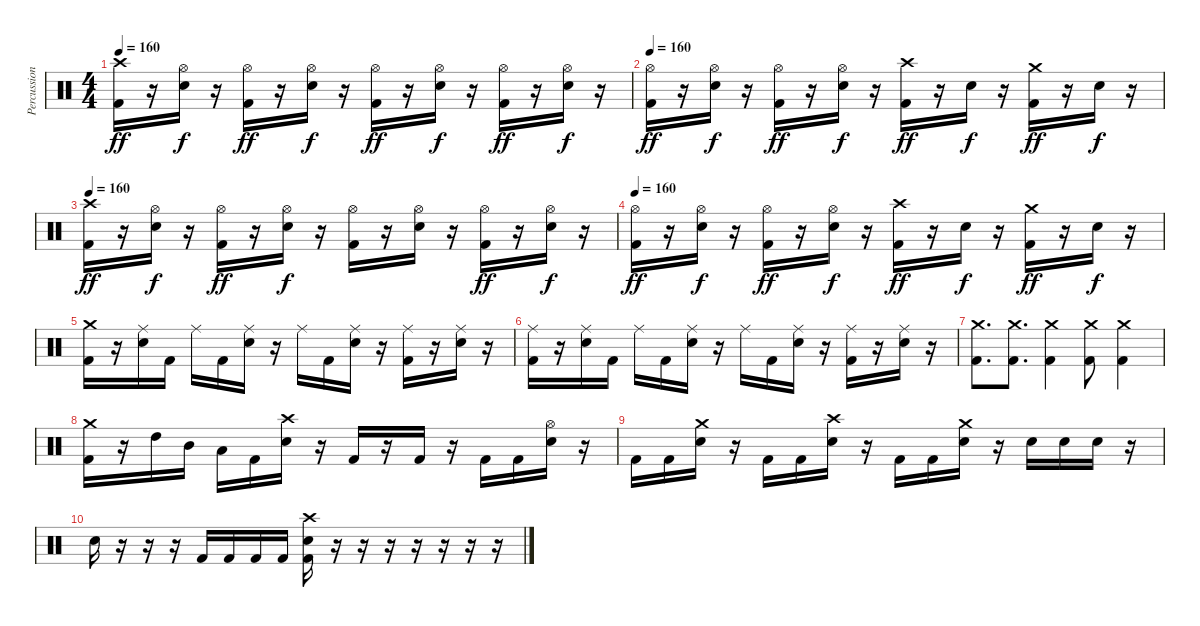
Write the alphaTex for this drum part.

\track ("Percussion" "Percussion") {instrument percussion}
\staff {score}
\articulation defaults
\ts (4 4)
\tempo 160
\clef neutral
\ks c
("Crash high (hit)" "Kick (hit) 2").16{dy ff} r.16 ("Hi-Hat (open)" "Snare (hit) 2").16{dy f} r.16 ("Hi-Hat (open)" "Kick (hit) 2").16{dy ff} r.16 ("Hi-Hat (open)" "Snare (hit) 2").16{dy f} r.16 ("Hi-Hat (open)" "Kick (hit) 2").16{dy ff} r.16 ("Hi-Hat (open)" "Snare (hit) 2").16{dy f} r.16 ("Hi-Hat (open)" "Kick (hit) 2").16{dy ff} r.16 ("Hi-Hat (open)" "Snare (hit) 2").16{dy f} r.16 |
\tempo 160
("Hi-Hat (open)" "Kick (hit) 2").16{dy ff} r.16 ("Hi-Hat (open)" "Snare (hit) 2").16{dy f} r.16 ("Hi-Hat (open)" "Kick (hit) 2").16{dy ff} r.16 ("Hi-Hat (open)" "Snare (hit) 2").16{dy f} r.16 ("Crash high (hit)" "Kick (hit) 2").16{dy ff} r.16 "Snare (hit) 2".16{dy f} r.16 ("Crash medium (hit)" "Kick (hit) 2").16{dy ff} r.16 "Snare (hit) 2".16{dy f} r.16 |
\tempo 160
("Crash high (hit)" "Kick (hit) 2").16{dy ff} r.16 ("Hi-Hat (open)" "Snare (hit) 2").16{dy f} r.16 ("Hi-Hat (open)" "Kick (hit) 2").16{dy ff} r.16 ("Hi-Hat (open)" "Snare (hit) 2").16{dy f} r.16 ("Hi-Hat (open)" "Kick (hit) 2").16 r.16 ("Hi-Hat (open)" "Snare (hit) 2").16 r.16 ("Hi-Hat (open)" "Kick (hit) 2").16{dy ff} r.16 ("Hi-Hat (open)" "Snare (hit) 2").16{dy f} r.16 |
\tempo 160
("Hi-Hat (open)" "Kick (hit) 2").16{dy ff} r.16 ("Hi-Hat (open)" "Snare (hit) 2").16{dy f} r.16 ("Hi-Hat (open)" "Kick (hit) 2").16{dy ff} r.16 ("Hi-Hat (open)" "Snare (hit) 2").16{dy f} r.16 ("Crash high (hit)" "Kick (hit) 2").16{dy ff} r.16 "Snare (hit) 2".16{dy f} r.16 ("Crash medium (hit)" "Kick (hit) 2").16{dy ff} r.16 "Snare (hit) 2".16{dy f} r.16 |
("Crash medium (hit)" "Kick (hit) 2").16 r.16 ("Ride (middle)" "Snare (hit) 2").16 "Kick (hit) 2".16 "Ride (middle)".16 "Kick (hit) 2".16 ("Ride (middle)" "Snare (hit) 2").16 r.16 "Ride (middle)".16 "Kick (hit) 2".16 ("Ride (middle)" "Snare (hit) 2").16 r.16 ("Ride (middle)" "Kick (hit) 2").16 r.16 ("Ride (middle)" "Snare (hit) 2").16 r.16 |
("Ride (middle)" "Kick (hit) 2").16 r.16 ("Ride (middle)" "Snare (hit) 2").16 "Kick (hit) 2".16 "Ride (middle)".16 "Kick (hit) 2".16 ("Ride (middle)" "Snare (hit) 2").16 r.16 "Ride (middle)".16 "Kick (hit) 2".16 ("Ride (middle)" "Snare (hit) 2").16 r.16 ("Ride (middle)" "Kick (hit) 2").16 r.16 ("Ride (middle)" "Snare (hit) 2").16 r.16 |
("Crash medium (hit)" "Kick (hit) 2").8{d} ("Crash medium (hit)" "Kick (hit) 2").8{d} ("Crash medium (hit)" "Kick (hit) 2").4 ("Crash medium (hit)" "Kick (hit) 2").8 ("Crash medium (hit)" "Kick (hit) 2").4 |
("Crash medium (hit)" "Kick (hit) 2").16 r.16 "High Tom (hit)".16 "Mid Tom (hit)".16 "Low Tom (hit)".16 "Kick (hit) 2".16 ("Crash high (hit)" "Snare (hit) 2").16 r.16 "Kick (hit) 2".16 r.16 "Kick (hit) 2".16 r.16 "Kick (hit) 2".16 "Kick (hit) 2".16 ("Hi-Hat (open)" "Snare (hit) 2").16 r.16 |
"Kick (hit) 2".16 "Kick (hit) 2".16 ("Crash medium (hit)" "Snare (hit) 2").16 r.16 "Kick (hit) 2".16 "Kick (hit) 2".16 ("Crash high (hit)" "Snare (hit) 2").16 r.16 "Kick (hit) 2".16 "Kick (hit) 2".16 ("Crash medium (hit)" "Snare (hit) 2").16 r.16 "Snare (hit) 2".16 "Snare (hit) 2".16 "Snare (hit) 2".16 r.16 |
"Snare (hit) 2".16 r.16 r.16 r.16 "Kick (hit) 2".16 "Kick (hit) 2".16 "Kick (hit) 2".16 "Kick (hit) 2".16 ("Crash high (hit)" "Snare (hit) 2" "Kick (hit) 2").16 r.16 r.16 r.16 r.16 r.16 r.16 r.16
